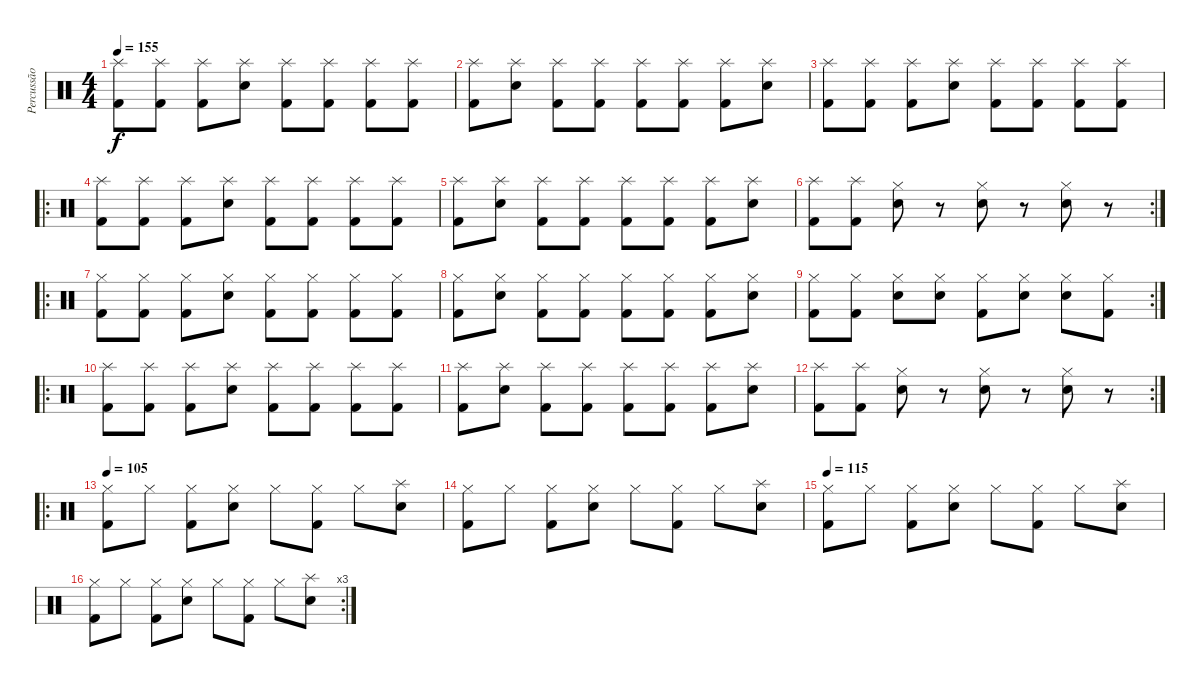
\track ("Percussão" "Percussão") {instrument percussion}
\staff {score}
\articulation defaults
\ts (4 4)
\tempo 155
\clef neutral
\ks c
("Splash (hit)" "Kick (hit) 2").8{dy f} ("Splash (hit)" "Kick (hit) 2").8 ("Splash (hit)" "Kick (hit) 2").8 ("Splash (hit)" "Snare (hit) 2").8 ("Splash (hit)" "Kick (hit) 2").8 ("Splash (hit)" "Kick (hit) 2").8 ("Splash (hit)" "Kick (hit) 2").8 ("Splash (hit)" "Kick (hit) 2").8 |
("Splash (hit)" "Kick (hit) 2").8 ("Splash (hit)" "Snare (hit) 2").8 ("Splash (hit)" "Kick (hit) 2").8 ("Splash (hit)" "Kick (hit) 2").8 ("Splash (hit)" "Kick (hit) 2").8 ("Splash (hit)" "Kick (hit) 2").8 ("Splash (hit)" "Kick (hit) 2").8 ("Splash (hit)" "Snare (hit) 2").8 |
("Splash (hit)" "Kick (hit) 2").8 ("Splash (hit)" "Kick (hit) 2").8 ("Splash (hit)" "Kick (hit) 2").8 ("Splash (hit)" "Snare (hit) 2").8 ("Splash (hit)" "Kick (hit) 2").8 ("Splash (hit)" "Kick (hit) 2").8 ("Splash (hit)" "Kick (hit) 2").8 ("Splash (hit)" "Kick (hit) 2").8 |
\ro
("Splash (hit)" "Kick (hit) 2").8 ("Splash (hit)" "Kick (hit) 2").8 ("Splash (hit)" "Kick (hit) 2").8 ("Splash (hit)" "Snare (hit) 2").8 ("Splash (hit)" "Kick (hit) 2").8 ("Splash (hit)" "Kick (hit) 2").8 ("Splash (hit)" "Kick (hit) 2").8 ("Splash (hit)" "Kick (hit) 2").8 |
("Splash (hit)" "Kick (hit) 2").8 ("Splash (hit)" "Snare (hit) 2").8 ("Splash (hit)" "Kick (hit) 2").8 ("Splash (hit)" "Kick (hit) 2").8 ("Splash (hit)" "Kick (hit) 2").8 ("Splash (hit)" "Kick (hit) 2").8 ("Splash (hit)" "Kick (hit) 2").8 ("Splash (hit)" "Snare (hit) 2").8 |
\rc 2
("Splash (hit)" "Kick (hit) 2").8 ("Splash (hit)" "Kick (hit) 2").8 ("Hi-Hat (closed)" "Snare (hit) 2").8 r.8 ("Hi-Hat (closed)" "Snare (hit) 2").8 r.8 ("Hi-Hat (closed)" "Snare (hit) 2").8 r.8 |
\ro
("Hi-Hat (closed)" "Kick (hit) 2").8 ("Hi-Hat (closed)" "Kick (hit) 2").8 ("Hi-Hat (closed)" "Kick (hit) 2").8 ("Hi-Hat (closed)" "Snare (hit) 2").8 ("Hi-Hat (closed)" "Kick (hit) 2").8 ("Hi-Hat (closed)" "Kick (hit) 2").8 ("Hi-Hat (closed)" "Kick (hit) 2").8 ("Hi-Hat (closed)" "Kick (hit) 2").8 |
("Hi-Hat (closed)" "Kick (hit) 2").8 ("Hi-Hat (closed)" "Snare (hit) 2").8 ("Hi-Hat (closed)" "Kick (hit) 2").8 ("Hi-Hat (closed)" "Kick (hit) 2").8 ("Hi-Hat (closed)" "Kick (hit) 2").8 ("Hi-Hat (closed)" "Kick (hit) 2").8 ("Hi-Hat (closed)" "Kick (hit) 2").8 ("Hi-Hat (closed)" "Snare (hit) 2").8 |
\rc 2
("Hi-Hat (closed)" "Kick (hit) 2").8 ("Hi-Hat (closed)" "Kick (hit) 2").8 ("Hi-Hat (closed)" "Snare (hit) 2").8 ("Hi-Hat (closed)" "Snare (hit) 2").8 ("Hi-Hat (closed)" "Kick (hit) 2").8 ("Hi-Hat (closed)" "Snare (hit) 2").8 ("Hi-Hat (closed)" "Snare (hit) 2").8 ("Hi-Hat (closed)" "Kick (hit) 2").8 |
\ro
("Splash (hit)" "Kick (hit) 2").8 ("Splash (hit)" "Kick (hit) 2").8 ("Splash (hit)" "Kick (hit) 2").8 ("Splash (hit)" "Snare (hit) 2").8 ("Splash (hit)" "Kick (hit) 2").8 ("Splash (hit)" "Kick (hit) 2").8 ("Splash (hit)" "Kick (hit) 2").8 ("Splash (hit)" "Kick (hit) 2").8 |
("Splash (hit)" "Kick (hit) 2").8 ("Splash (hit)" "Snare (hit) 2").8 ("Splash (hit)" "Kick (hit) 2").8 ("Splash (hit)" "Kick (hit) 2").8 ("Splash (hit)" "Kick (hit) 2").8 ("Splash (hit)" "Kick (hit) 2").8 ("Splash (hit)" "Kick (hit) 2").8 ("Splash (hit)" "Snare (hit) 2").8 |
\rc 2
("Splash (hit)" "Kick (hit) 2").8 ("Splash (hit)" "Kick (hit) 2").8 ("Hi-Hat (closed)" "Snare (hit) 2").8 r.8 ("Hi-Hat (closed)" "Snare (hit) 2").8 r.8 ("Hi-Hat (closed)" "Snare (hit) 2").8 r.8 |
\ro
\tempo 105
("Hi-Hat (closed)" "Kick (hit) 2").8 "Hi-Hat (closed)".8 ("Hi-Hat (closed)" "Kick (hit) 2").8 ("Hi-Hat (closed)" "Snare (hit) 2").8 "Hi-Hat (closed)".8 ("Hi-Hat (closed)" "Kick (hit) 2").8 "Hi-Hat (closed)".8 ("Splash (hit)" "Snare (hit) 2").8 |
("Hi-Hat (closed)" "Kick (hit) 2").8 "Hi-Hat (closed)".8 ("Hi-Hat (closed)" "Kick (hit) 2").8 ("Hi-Hat (closed)" "Snare (hit) 2").8 "Hi-Hat (closed)".8 ("Hi-Hat (closed)" "Kick (hit) 2").8 "Hi-Hat (closed)".8 ("Splash (hit)" "Snare (hit) 2").8 |
\tempo 115
("Hi-Hat (closed)" "Kick (hit) 2").8 "Hi-Hat (closed)".8 ("Hi-Hat (closed)" "Kick (hit) 2").8 ("Hi-Hat (closed)" "Snare (hit) 2").8 "Hi-Hat (closed)".8 ("Hi-Hat (closed)" "Kick (hit) 2").8 "Hi-Hat (closed)".8 ("Splash (hit)" "Snare (hit) 2").8 |
\rc 3
("Hi-Hat (closed)" "Kick (hit) 2").8 "Hi-Hat (closed)".8 ("Hi-Hat (closed)" "Kick (hit) 2").8 ("Hi-Hat (closed)" "Snare (hit) 2").8 "Hi-Hat (closed)".8 ("Hi-Hat (closed)" "Kick (hit) 2").8 "Hi-Hat (closed)".8 ("Splash (hit)" "Snare (hit) 2").8
